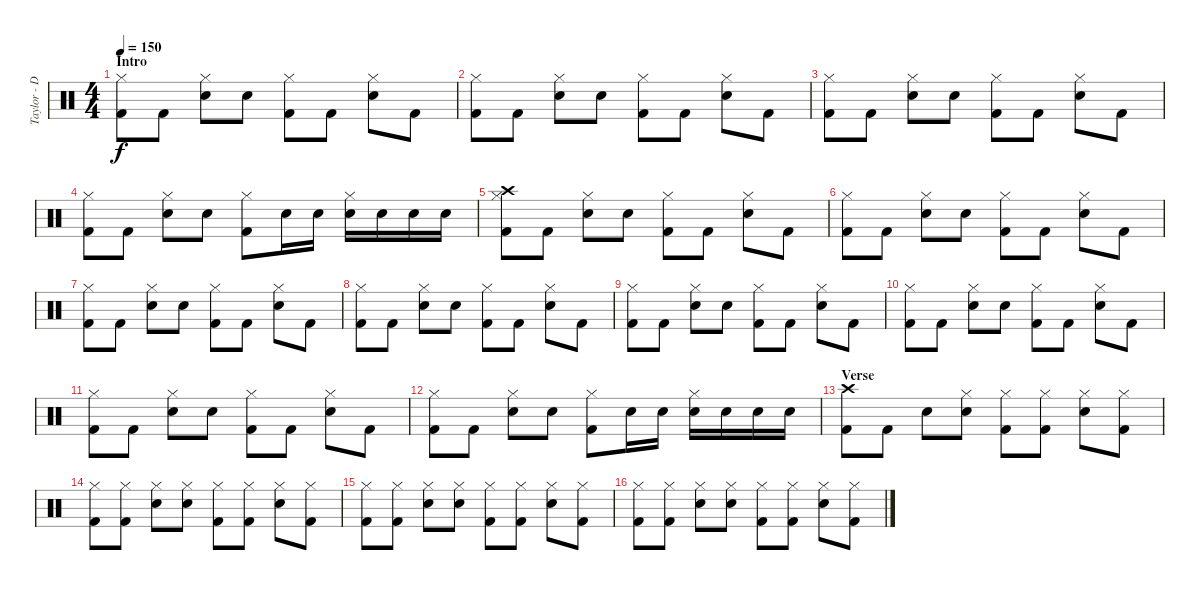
\track ("Taylor - Drums" "Taylor - D") {instrument percussion}
\staff {score}
\articulation defaults
\ts (4 4)
\section ("" "Intro")
\tempo 150
\clef neutral
\ks c
("Kick (hit) 2" "Hi-Hat (closed)").8{dy f} "Kick (hit) 2".8 ("Snare (hit) 2" "Hi-Hat (closed)").8 "Snare (hit) 2".8 ("Kick (hit) 2" "Hi-Hat (closed)").8 "Kick (hit) 2".8 ("Snare (hit) 2" "Hi-Hat (closed)").8 "Kick (hit) 2".8 |
("Kick (hit) 2" "Hi-Hat (closed)").8 "Kick (hit) 2".8 ("Snare (hit) 2" "Hi-Hat (closed)").8 "Snare (hit) 2".8 ("Kick (hit) 2" "Hi-Hat (closed)").8 "Kick (hit) 2".8 ("Snare (hit) 2" "Hi-Hat (closed)").8 "Kick (hit) 2".8 |
("Kick (hit) 2" "Hi-Hat (closed)").8 "Kick (hit) 2".8 ("Snare (hit) 2" "Hi-Hat (closed)").8 "Snare (hit) 2".8 ("Kick (hit) 2" "Hi-Hat (closed)").8 "Kick (hit) 2".8 ("Snare (hit) 2" "Hi-Hat (closed)").8 "Kick (hit) 2".8 |
("Kick (hit) 2" "Hi-Hat (closed)").8 "Kick (hit) 2".8 ("Snare (hit) 2" "Hi-Hat (closed)").8 "Snare (hit) 2".8 ("Kick (hit) 2" "Hi-Hat (closed)").8 "Snare (hit) 2".16 "Snare (hit) 2".16 ("Snare (hit) 2" "Hi-Hat (closed)").16 "Snare (hit) 2".16 "Snare (hit) 2".16 "Snare (hit) 2".16 |
("Kick (hit) 2" "Hi-Hat (closed)" "Crash high (hit)").8 "Kick (hit) 2".8 ("Snare (hit) 2" "Hi-Hat (closed)").8 "Snare (hit) 2".8 ("Kick (hit) 2" "Hi-Hat (closed)").8 "Kick (hit) 2".8 ("Snare (hit) 2" "Hi-Hat (closed)").8 "Kick (hit) 2".8 |
("Kick (hit) 2" "Hi-Hat (closed)").8 "Kick (hit) 2".8 ("Snare (hit) 2" "Hi-Hat (closed)").8 "Snare (hit) 2".8 ("Kick (hit) 2" "Hi-Hat (closed)").8 "Kick (hit) 2".8 ("Snare (hit) 2" "Hi-Hat (closed)").8 "Kick (hit) 2".8 |
("Kick (hit) 2" "Hi-Hat (closed)").8 "Kick (hit) 2".8 ("Snare (hit) 2" "Hi-Hat (closed)").8 "Snare (hit) 2".8 ("Kick (hit) 2" "Hi-Hat (closed)").8 "Kick (hit) 2".8 ("Snare (hit) 2" "Hi-Hat (closed)").8 "Kick (hit) 2".8 |
("Kick (hit) 2" "Hi-Hat (closed)").8 "Kick (hit) 2".8 ("Snare (hit) 2" "Hi-Hat (closed)").8 "Snare (hit) 2".8 ("Kick (hit) 2" "Hi-Hat (closed)").8 "Kick (hit) 2".8 ("Snare (hit) 2" "Hi-Hat (closed)").8 "Kick (hit) 2".8 |
("Kick (hit) 2" "Hi-Hat (closed)").8 "Kick (hit) 2".8 ("Snare (hit) 2" "Hi-Hat (closed)").8 "Snare (hit) 2".8 ("Kick (hit) 2" "Hi-Hat (closed)").8 "Kick (hit) 2".8 ("Snare (hit) 2" "Hi-Hat (closed)").8 "Kick (hit) 2".8 |
("Kick (hit) 2" "Hi-Hat (closed)").8 "Kick (hit) 2".8 ("Snare (hit) 2" "Hi-Hat (closed)").8 "Snare (hit) 2".8 ("Kick (hit) 2" "Hi-Hat (closed)").8 "Kick (hit) 2".8 ("Snare (hit) 2" "Hi-Hat (closed)").8 "Kick (hit) 2".8 |
("Kick (hit) 2" "Hi-Hat (closed)").8 "Kick (hit) 2".8 ("Snare (hit) 2" "Hi-Hat (closed)").8 "Snare (hit) 2".8 ("Kick (hit) 2" "Hi-Hat (closed)").8 "Kick (hit) 2".8 ("Snare (hit) 2" "Hi-Hat (closed)").8 "Kick (hit) 2".8 |
("Kick (hit) 2" "Hi-Hat (closed)").8 "Kick (hit) 2".8 ("Snare (hit) 2" "Hi-Hat (closed)").8 "Snare (hit) 2".8 ("Kick (hit) 2" "Hi-Hat (closed)").8 "Snare (hit) 2".16 "Snare (hit) 2".16 ("Snare (hit) 2" "Hi-Hat (closed)").16 "Snare (hit) 2".16 "Snare (hit) 2".16 "Snare (hit) 2".16 |
\section ("" "Verse")
("Kick (hit) 2" "Crash high (hit)").8 "Kick (hit) 2".8 "Snare (hit) 2".8 ("Snare (hit) 2" "Hi-Hat (closed)").8 ("Kick (hit) 2" "Hi-Hat (closed)").8 ("Kick (hit) 2" "Hi-Hat (closed)").8 ("Snare (hit) 2" "Hi-Hat (closed)").8 ("Kick (hit) 2" "Hi-Hat (closed)").8 |
("Kick (hit) 2" "Hi-Hat (closed)").8 ("Kick (hit) 2" "Hi-Hat (closed)").8 ("Snare (hit) 2" "Hi-Hat (closed)").8 ("Snare (hit) 2" "Hi-Hat (closed)").8 ("Kick (hit) 2" "Hi-Hat (closed)").8 ("Kick (hit) 2" "Hi-Hat (closed)").8 ("Snare (hit) 2" "Hi-Hat (closed)").8 ("Kick (hit) 2" "Hi-Hat (closed)").8 |
("Kick (hit) 2" "Hi-Hat (closed)").8 ("Kick (hit) 2" "Hi-Hat (closed)").8 ("Snare (hit) 2" "Hi-Hat (closed)").8 ("Snare (hit) 2" "Hi-Hat (closed)").8 ("Kick (hit) 2" "Hi-Hat (closed)").8 ("Kick (hit) 2" "Hi-Hat (closed)").8 ("Snare (hit) 2" "Hi-Hat (closed)").8 ("Kick (hit) 2" "Hi-Hat (closed)").8 |
("Kick (hit) 2" "Hi-Hat (closed)").8 ("Kick (hit) 2" "Hi-Hat (closed)").8 ("Snare (hit) 2" "Hi-Hat (closed)").8 ("Snare (hit) 2" "Hi-Hat (closed)").8 ("Kick (hit) 2" "Hi-Hat (closed)").8 ("Kick (hit) 2" "Hi-Hat (closed)").8 ("Snare (hit) 2" "Hi-Hat (closed)").8 ("Kick (hit) 2" "Hi-Hat (closed)").8
